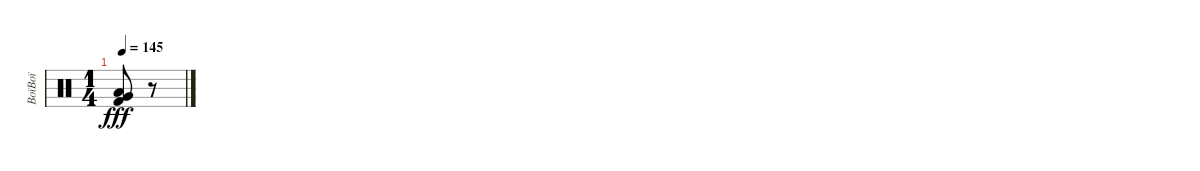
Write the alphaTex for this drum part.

\track ("BoïBoï" "BoïBoï") {instrument percussion}
\staff {score}
\articulation defaults
\ts (1 4)
\tempo 145
\clef neutral
\ks c
("Very Low Tom (hit)" "Low Floor Tom (hit)" "Kick (hit) 2").8{dy fff} r.8
